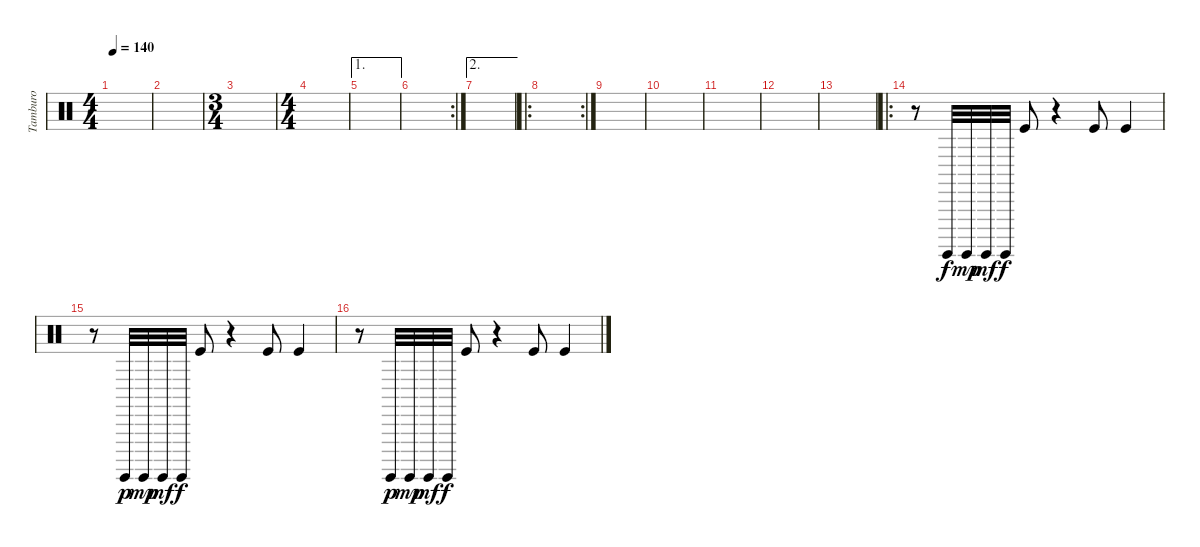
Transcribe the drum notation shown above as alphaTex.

\track ("Tamburo" "Tamburo") {instrument percussion}
\staff {score}
\articulation defaults
\ts (4 4)
\tempo 140
\clef neutral
\ks c
|
|
\ts (3 4)
|
\ts (4 4)
|
\ae 1
|
\rc 2
|
\ae 2
|
\ro
\rc 2
|
|
|
|
|
|
\ro
r.8 "Surdo (hit)".32 "Surdo (hit)".32{dy mp} "Surdo (hit)".32{dy mf} "Surdo (hit)".32{dy f} "Kick (hit)".8 r.4 "Kick (hit)".8 "Kick (hit)".4 |
r.8 "Surdo (hit)".32{dy p} "Surdo (hit)".32{dy mp} "Surdo (hit)".32{dy mf} "Surdo (hit)".32{dy f} "Kick (hit)".8 r.4 "Kick (hit)".8 "Kick (hit)".4 |
r.8 "Surdo (hit)".32{dy p} "Surdo (hit)".32{dy mp} "Surdo (hit)".32{dy mf} "Surdo (hit)".32{dy f} "Kick (hit)".8 r.4 "Kick (hit)".8 "Kick (hit)".4
